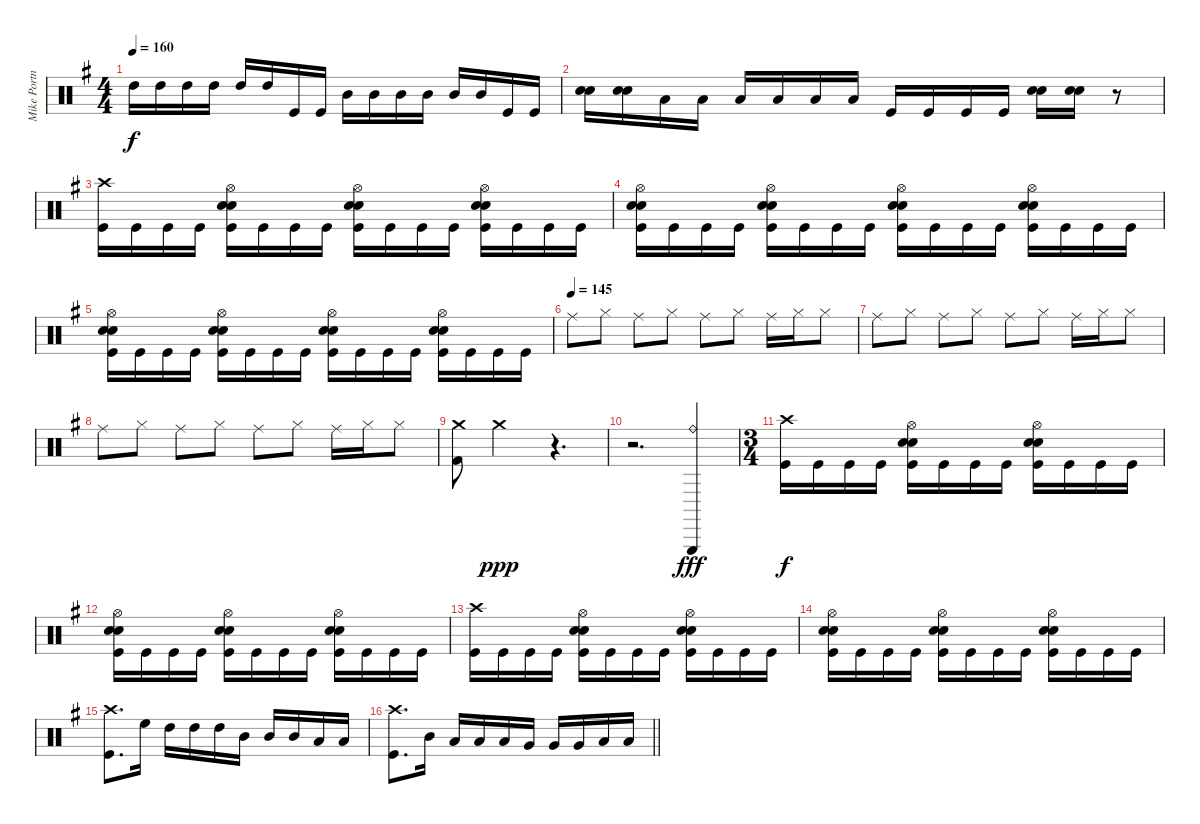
\track ("Mike Portnoy - Drums" "Mike Portn") {instrument percussion}
\staff {score}
\articulation defaults
\ts (4 4)
\tempo 160
\clef neutral
\ks g "High Tom (hit)".16{dy f} "High Tom (hit)".16 "High Tom (hit)".16 "High Tom (hit)".16 "High Tom (hit)".16 "High Tom (hit)".16 "Kick (hit)".16 "Kick (hit)".16 "Mid Tom (hit)".16 "Mid Tom (hit)".16 "Mid Tom (hit)".16 "Mid Tom (hit)".16 "Mid Tom (hit)".16 "Mid Tom (hit)".16 "Kick (hit)".16 "Kick (hit)".16
|
("Snare (hit) 2" "Electric Snare (hit)").16 ("Snare (hit) 2" "Electric Snare (hit)").16 "Low Tom (hit)".16 "Low Tom (hit)".16 "Low Tom (hit)".16 "Low Tom (hit)".16 "Low Tom (hit)".16 "Low Tom (hit)".16 "Kick (hit)".16 "Kick (hit)".16 "Kick (hit)".16 "Kick (hit)".16 ("Snare (hit) 2" "Electric Snare (hit)").16 ("Snare (hit) 2" "Electric Snare (hit)").16 r.8 |
("Crash high (hit)" "Kick (hit)").16 "Kick (hit)".16 "Kick (hit)".16 "Kick (hit)".16 ("Hi-Hat (open)" "Snare (hit) 2" "Electric Snare (hit)" "Kick (hit)").16 "Kick (hit)".16 "Kick (hit)".16 "Kick (hit)".16 ("Hi-Hat (open)" "Snare (hit) 2" "Electric Snare (hit)" "Kick (hit)").16 "Kick (hit)".16 "Kick (hit)".16 "Kick (hit)".16 ("Hi-Hat (open)" "Snare (hit) 2" "Electric Snare (hit)" "Kick (hit)").16 "Kick (hit)".16 "Kick (hit)".16 "Kick (hit)".16 |
("Hi-Hat (open)" "Snare (hit) 2" "Electric Snare (hit)" "Kick (hit)").16 "Kick (hit)".16 "Kick (hit)".16 "Kick (hit)".16 ("Hi-Hat (open)" "Snare (hit) 2" "Electric Snare (hit)" "Kick (hit)").16 "Kick (hit)".16 "Kick (hit)".16 "Kick (hit)".16 ("Hi-Hat (open)" "Snare (hit) 2" "Electric Snare (hit)" "Kick (hit)").16 "Kick (hit)".16 "Kick (hit)".16 "Kick (hit)".16 ("Hi-Hat (open)" "Snare (hit) 2" "Electric Snare (hit)" "Kick (hit)").16 "Kick (hit)".16 "Kick (hit)".16 "Kick (hit)".16 |
("Hi-Hat (open)" "Snare (hit) 2" "Electric Snare (hit)" "Kick (hit)").16 "Kick (hit)".16 "Kick (hit)".16 "Kick (hit)".16 ("Hi-Hat (open)" "Snare (hit) 2" "Electric Snare (hit)" "Kick (hit)").16 "Kick (hit)".16 "Kick (hit)".16 "Kick (hit)".16 ("Hi-Hat (open)" "Snare (hit) 2" "Electric Snare (hit)" "Kick (hit)").16 "Kick (hit)".16 "Kick (hit)".16 "Kick (hit)".16 ("Hi-Hat (open)" "Snare (hit) 2" "Electric Snare (hit)" "Kick (hit)").16 "Kick (hit)".16 "Kick (hit)".16 "Kick (hit)".16 |
\tempo (145)
"Ride (middle)".8 "Hi-Hat (closed)".8 "Ride (middle)".8 "Hi-Hat (closed)".8 "Ride (middle)".8 "Hi-Hat (closed)".8 "Ride (middle)".16 "Hi-Hat (closed)".16 "Hi-Hat (closed)".8 |
"Ride (middle)".8 "Hi-Hat (closed)".8 "Ride (middle)".8 "Hi-Hat (closed)".8 "Ride (middle)".8 "Hi-Hat (closed)".8 "Ride (middle)".16 "Hi-Hat (closed)".16 "Hi-Hat (closed)".8 |
"Ride (middle)".8 "Hi-Hat (closed)".8 "Ride (middle)".8 "Hi-Hat (closed)".8 "Ride (middle)".8 "Hi-Hat (closed)".8 "Ride (middle)".16 "Hi-Hat (closed)".16 "Hi-Hat (closed)".8 |
("Crash medium (hit)" "Kick (hit) 2").8 "Crash medium (hit)".2{dy ppp} r.4{d} |
r.2{d} ("Ride (bell)" "Triangle (hit)").4{dy fff} |
\ts (3 4)
("Crash high (hit)" "Kick (hit)").16{dy f} "Kick (hit)".16 "Kick (hit)".16 "Kick (hit)".16 ("Hi-Hat (open)" "Snare (hit) 2" "Electric Snare (hit)" "Kick (hit)").16 "Kick (hit)".16 "Kick (hit)".16 "Kick (hit)".16 ("Hi-Hat (open)" "Snare (hit) 2" "Electric Snare (hit)" "Kick (hit)").16 "Kick (hit)".16 "Kick (hit)".16 "Kick (hit)".16 |
("Hi-Hat (open)" "Snare (hit) 2" "Electric Snare (hit)" "Kick (hit)").16 "Kick (hit)".16 "Kick (hit)".16 "Kick (hit)".16 ("Hi-Hat (open)" "Snare (hit) 2" "Electric Snare (hit)" "Kick (hit)").16 "Kick (hit)".16 "Kick (hit)".16 "Kick (hit)".16 ("Hi-Hat (open)" "Snare (hit) 2" "Electric Snare (hit)" "Kick (hit)").16 "Kick (hit)".16 "Kick (hit)".16 "Kick (hit)".16 |
("Crash high (hit)" "Kick (hit)").16 "Kick (hit)".16 "Kick (hit)".16 "Kick (hit)".16 ("Hi-Hat (open)" "Snare (hit) 2" "Electric Snare (hit)" "Kick (hit)").16 "Kick (hit)".16 "Kick (hit)".16 "Kick (hit)".16 ("Hi-Hat (open)" "Snare (hit) 2" "Electric Snare (hit)" "Kick (hit)").16 "Kick (hit)".16 "Kick (hit)".16 "Kick (hit)".16 |
("Hi-Hat (open)" "Snare (hit) 2" "Electric Snare (hit)" "Kick (hit)").16 "Kick (hit)".16 "Kick (hit)".16 "Kick (hit)".16 ("Hi-Hat (open)" "Snare (hit) 2" "Electric Snare (hit)" "Kick (hit)").16 "Kick (hit)".16 "Kick (hit)".16 "Kick (hit)".16 ("Hi-Hat (open)" "Snare (hit) 2" "Electric Snare (hit)" "Kick (hit)").16 "Kick (hit)".16 "Kick (hit)".16 "Kick (hit)".16 |
("Crash high (hit)" "Kick (hit)").8{d} "High Floor Tom (hit)".16 "High Tom (hit)".16 "High Tom (hit)".16 "High Tom (hit)".16 "Mid Tom (hit)".16 "Mid Tom (hit)".16 "Mid Tom (hit)".16 "Low Tom (hit)".16 "Low Tom (hit)".16 |
\barLineRight lightlight
("Crash high (hit)" "Kick (hit)").8{d} "Mid Tom (hit)".16 "Low Tom (hit)".16 "Low Tom (hit)".16 "Low Tom (hit)".16 "Very Low Tom (hit)".16 "Very Low Tom (hit)".16 "Very Low Tom (hit)".16 "Low Floor Tom (hit)".16 "Low Floor Tom (hit)".16
